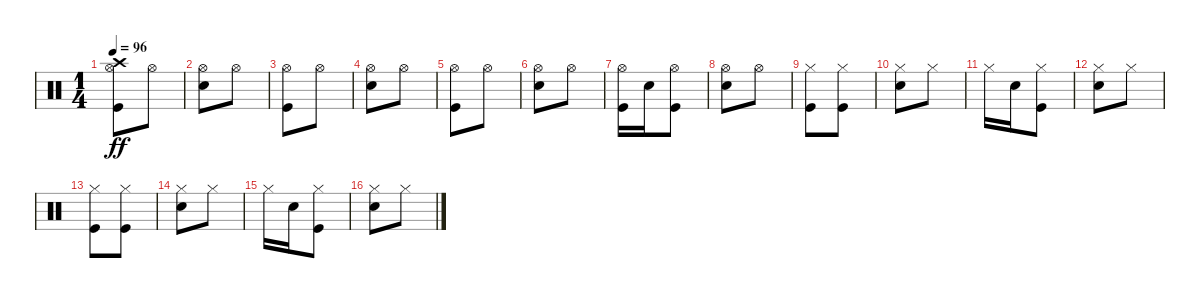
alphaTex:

\track "" {instrument percussion}
\staff {score}
\articulation defaults
\ts (1 4)
\tempo 96
\clef neutral
\ks c
("Kick (hit)" "Hi-Hat (open)" "Crash high (hit)").8{dy ff} "Hi-Hat (open)".8 |
("Snare (hit) 2" "Hi-Hat (open)").8 "Hi-Hat (open)".8 |
("Kick (hit)" "Hi-Hat (open)").8 "Hi-Hat (open)".8 |
("Snare (hit) 2" "Hi-Hat (open)").8 "Hi-Hat (open)".8 |
("Kick (hit)" "Hi-Hat (open)").8 "Hi-Hat (open)".8 |
("Snare (hit) 2" "Hi-Hat (open)").8 "Hi-Hat (open)".8 |
("Kick (hit)" "Hi-Hat (open)").16 "Snare (hit) 2".16 ("Kick (hit)" "Hi-Hat (open)").8 |
("Snare (hit) 2" "Hi-Hat (open)").8 "Hi-Hat (open)".8 |
("Kick (hit)" "Hi-Hat (closed)").8{volume 16} ("Kick (hit)" "Hi-Hat (closed)").8 |
("Snare (hit) 2" "Hi-Hat (closed)").8 "Hi-Hat (closed)".8 |
"Hi-Hat (closed)".16 "Snare (hit) 2".16 ("Kick (hit)" "Hi-Hat (closed)").8 |
("Snare (hit) 2" "Hi-Hat (closed)").8 "Hi-Hat (closed)".8 |
("Kick (hit)" "Hi-Hat (closed)").8 ("Kick (hit)" "Hi-Hat (closed)").8 |
("Snare (hit) 2" "Hi-Hat (closed)").8 "Hi-Hat (closed)".8 |
"Hi-Hat (closed)".16 "Snare (hit) 2".16 ("Kick (hit)" "Hi-Hat (closed)").8 |
("Snare (hit) 2" "Hi-Hat (closed)").8 "Hi-Hat (closed)".8
